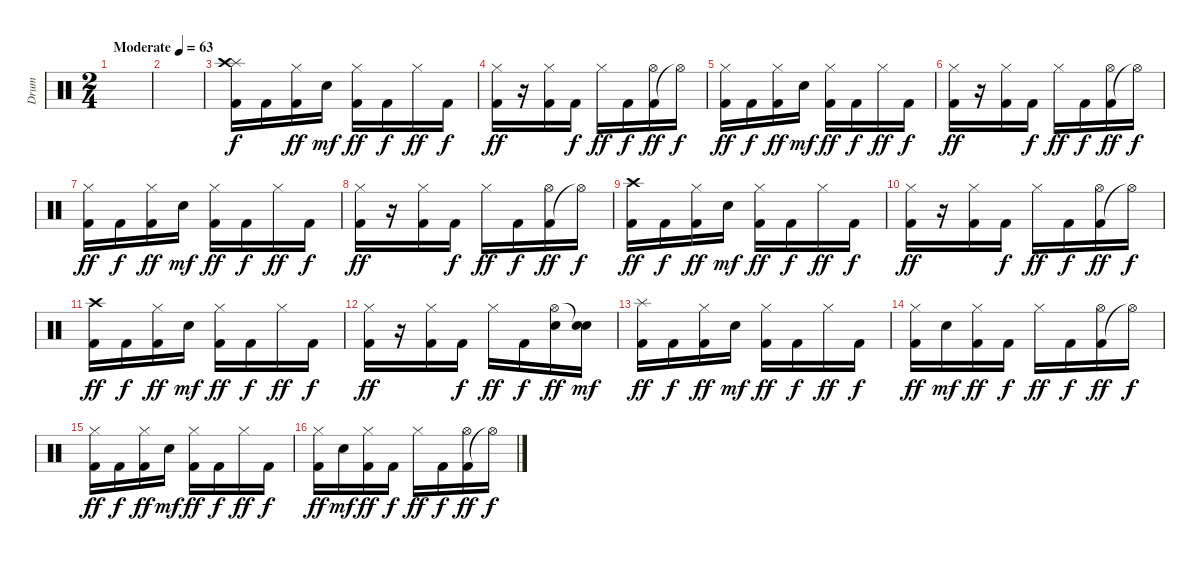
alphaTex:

\track ("Drum" "Drum") {instrument percussion}
\staff {score}
\articulation defaults
\ts (2 4)
\tempo (63 "Moderate")
\clef neutral
\ks c
|
|
("Kick (hit) 2" "Splash (hit)" "Crash high (hit)").16 "Kick (hit) 2".16{dy f} ("Kick (hit) 2" "Hi-Hat (closed)").16{dy ff} "Snare (hit) 2".16{dy mf} ("Kick (hit) 2" "Hi-Hat (closed)").16{dy ff} "Kick (hit) 2".16{dy f} "Hi-Hat (closed)".16{dy ff} "Kick (hit) 2".16{dy f} |
("Kick (hit) 2" "Hi-Hat (closed)").16{dy ff} r.16 ("Kick (hit) 2" "Hi-Hat (closed)").16 "Kick (hit) 2".16{dy f} "Hi-Hat (closed)".16{dy ff} "Kick (hit) 2".16{dy f} ("Kick (hit) 2" "Hi-Hat (open)").16{dy ff} "Hi-Hat (open)"{t}.16{dy f} |
("Kick (hit) 2" "Hi-Hat (closed)").16{dy ff} "Kick (hit) 2".16{dy f} ("Kick (hit) 2" "Hi-Hat (closed)").16{dy ff} "Snare (hit) 2".16{dy mf} ("Kick (hit) 2" "Hi-Hat (closed)").16{dy ff} "Kick (hit) 2".16{dy f} "Hi-Hat (closed)".16{dy ff} "Kick (hit) 2".16{dy f} |
("Kick (hit) 2" "Hi-Hat (closed)").16{dy ff} r.16 ("Kick (hit) 2" "Hi-Hat (closed)").16 "Kick (hit) 2".16{dy f} "Hi-Hat (closed)".16{dy ff} "Kick (hit) 2".16{dy f} ("Kick (hit) 2" "Hi-Hat (open)").16{dy ff} "Hi-Hat (open)"{t}.16{dy f} |
("Kick (hit) 2" "Hi-Hat (closed)").16{dy ff} "Kick (hit) 2".16{dy f} ("Kick (hit) 2" "Hi-Hat (closed)").16{dy ff} "Snare (hit) 2".16{dy mf} ("Kick (hit) 2" "Hi-Hat (closed)").16{dy ff} "Kick (hit) 2".16{dy f} "Hi-Hat (closed)".16{dy ff} "Kick (hit) 2".16{dy f} |
("Kick (hit) 2" "Hi-Hat (closed)").16{dy ff} r.16 ("Kick (hit) 2" "Hi-Hat (closed)").16 "Kick (hit) 2".16{dy f} "Hi-Hat (closed)".16{dy ff} "Kick (hit) 2".16{dy f} ("Kick (hit) 2" "Hi-Hat (open)").16{dy ff} "Hi-Hat (open)"{t}.16{dy f} |
("Kick (hit) 2" "Crash high (hit)").16{dy ff} "Kick (hit) 2".16{dy f} ("Kick (hit) 2" "Hi-Hat (closed)").16{dy ff} "Snare (hit) 2".16{dy mf} ("Kick (hit) 2" "Hi-Hat (closed)").16{dy ff} "Kick (hit) 2".16{dy f} "Hi-Hat (closed)".16{dy ff} "Kick (hit) 2".16{dy f} |
("Kick (hit) 2" "Hi-Hat (closed)").16{dy ff} r.16 ("Kick (hit) 2" "Hi-Hat (closed)").16 "Kick (hit) 2".16{dy f} "Hi-Hat (closed)".16{dy ff} "Kick (hit) 2".16{dy f} ("Kick (hit) 2" "Hi-Hat (open)").16{dy ff} "Hi-Hat (open)"{t}.16{dy f} |
("Kick (hit) 2" "Crash high (hit)").16{dy ff} "Kick (hit) 2".16{dy f} ("Kick (hit) 2" "Hi-Hat (closed)").16{dy ff} "Snare (hit) 2".16{dy mf} ("Kick (hit) 2" "Hi-Hat (closed)").16{dy ff} "Kick (hit) 2".16{dy f} "Hi-Hat (closed)".16{dy ff} "Kick (hit) 2".16{dy f} |
("Kick (hit) 2" "Hi-Hat (closed)").16{dy ff} r.16 ("Kick (hit) 2" "Hi-Hat (closed)").16 "Kick (hit) 2".16{dy f} "Hi-Hat (closed)".16{dy ff} "Kick (hit) 2".16{dy f} ("Snare (hit) 2" "Hi-Hat (open)").16{dy ff} ("Snare (hit) 2" "Snare (hit)"{t}).16{dy mf} |
("Kick (hit) 2" "Splash (hit)").16{dy ff} "Kick (hit) 2".16{dy f} ("Kick (hit) 2" "Hi-Hat (closed)").16{dy ff} "Snare (hit) 2".16{dy mf} ("Kick (hit) 2" "Hi-Hat (closed)").16{dy ff} "Kick (hit) 2".16{dy f} "Hi-Hat (closed)".16{dy ff} "Kick (hit) 2".16{dy f} |
("Kick (hit) 2" "Hi-Hat (closed)").16{dy ff} "Snare (hit) 2".16{dy mf} ("Kick (hit) 2" "Hi-Hat (closed)").16{dy ff} "Kick (hit) 2".16{dy f} "Hi-Hat (closed)".16{dy ff} "Kick (hit) 2".16{dy f} ("Kick (hit) 2" "Hi-Hat (open)").16{dy ff} "Hi-Hat (open)"{t}.16{dy f} |
("Kick (hit) 2" "Hi-Hat (closed)").16{dy ff} "Kick (hit) 2".16{dy f} ("Kick (hit) 2" "Hi-Hat (closed)").16{dy ff} "Snare (hit) 2".16{dy mf} ("Kick (hit) 2" "Hi-Hat (closed)").16{dy ff} "Kick (hit) 2".16{dy f} "Hi-Hat (closed)".16{dy ff} "Kick (hit) 2".16{dy f} |
("Kick (hit) 2" "Hi-Hat (closed)").16{dy ff} "Snare (hit) 2".16{dy mf} ("Kick (hit) 2" "Hi-Hat (closed)").16{dy ff} "Kick (hit) 2".16{dy f} "Hi-Hat (closed)".16{dy ff} "Kick (hit) 2".16{dy f} ("Kick (hit) 2" "Hi-Hat (open)").16{dy ff} "Hi-Hat (open)"{t}.16{dy f}
